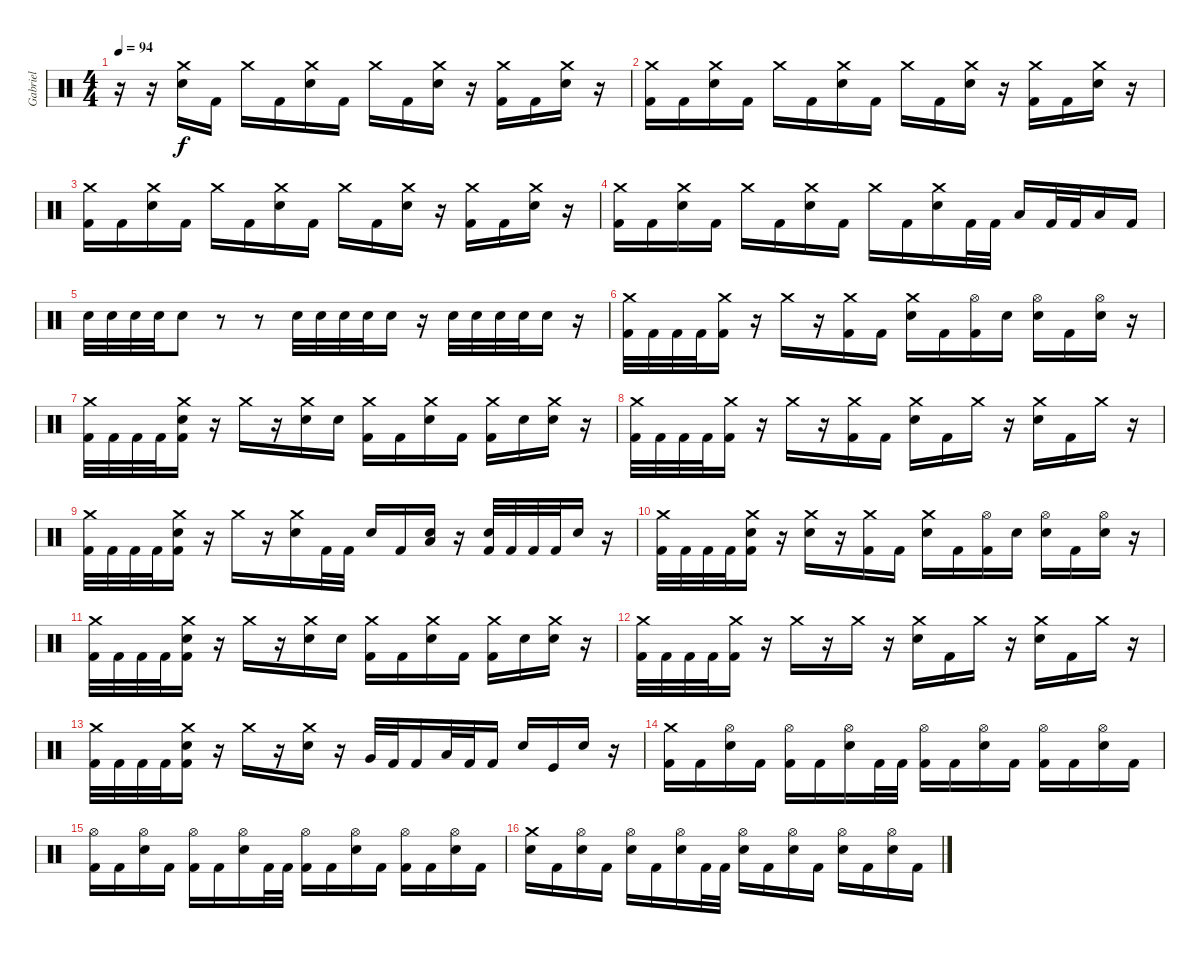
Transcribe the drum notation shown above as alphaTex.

\track ("Gabriel" "Gabriel") {instrument percussion}
\staff {score}
\articulation defaults
\ts (4 4)
\tempo 94
\clef neutral
\ks c
r.16{dy f} r.16 ("Crash medium (hit)" "Electric Snare (hit)").16 "Kick (hit) 2".16 "Crash medium (hit)".16 "Kick (hit) 2".16 ("Crash medium (hit)" "Electric Snare (hit)").16 "Kick (hit) 2".16 "Crash medium (hit)".16 "Kick (hit) 2".16 ("Crash medium (hit)" "Electric Snare (hit)").16 r.16 ("Crash medium (hit)" "Kick (hit) 2").16 "Kick (hit) 2".16 ("Crash medium (hit)" "Electric Snare (hit)").16 r.16 |
("Crash medium (hit)" "Kick (hit) 2").16 "Kick (hit) 2".16 ("Crash medium (hit)" "Electric Snare (hit)").16 "Kick (hit) 2".16 "Crash medium (hit)".16 "Kick (hit) 2".16 ("Crash medium (hit)" "Electric Snare (hit)").16 "Kick (hit) 2".16 "Crash medium (hit)".16 "Kick (hit) 2".16 ("Crash medium (hit)" "Electric Snare (hit)").16 r.16 ("Crash medium (hit)" "Kick (hit) 2").16 "Kick (hit) 2".16 ("Crash medium (hit)" "Electric Snare (hit)").16 r.16 |
("Crash medium (hit)" "Kick (hit) 2").16 "Kick (hit) 2".16 ("Crash medium (hit)" "Electric Snare (hit)").16 "Kick (hit) 2".16 "Crash medium (hit)".16 "Kick (hit) 2".16 ("Crash medium (hit)" "Electric Snare (hit)").16 "Kick (hit) 2".16 "Crash medium (hit)".16 "Kick (hit) 2".16 ("Crash medium (hit)" "Electric Snare (hit)").16 r.16 ("Crash medium (hit)" "Kick (hit) 2").16 "Kick (hit) 2".16 ("Crash medium (hit)" "Electric Snare (hit)").16 r.16 |
("Crash medium (hit)" "Kick (hit) 2").16 "Kick (hit) 2".16 ("Crash medium (hit)" "Electric Snare (hit)").16 "Kick (hit) 2".16 "Crash medium (hit)".16 "Kick (hit) 2".16 ("Crash medium (hit)" "Electric Snare (hit)").16 "Kick (hit) 2".16 "Crash medium (hit)".16 "Kick (hit) 2".16 ("Crash medium (hit)" "Electric Snare (hit)").16 "Kick (hit) 2".32 "Kick (hit) 2".32 "Low Tom (hit)".16 "Kick (hit) 2".32 "Kick (hit) 2".32 "Low Tom (hit)".16 "Kick (hit) 2".16 |
"Electric Snare (hit)".32 "Electric Snare (hit)".32 "Electric Snare (hit)".32 "Electric Snare (hit)".32 "Electric Snare (hit)".8 r.8 r.8 "Electric Snare (hit)".32 "Electric Snare (hit)".32 "Electric Snare (hit)".32 "Electric Snare (hit)".32 "Electric Snare (hit)".16 r.16 "Electric Snare (hit)".32 "Electric Snare (hit)".32 "Electric Snare (hit)".32 "Electric Snare (hit)".32 "Electric Snare (hit)".16 r.16 |
("Crash medium (hit)" "Kick (hit) 2").32 "Kick (hit) 2".32 "Kick (hit) 2".32 "Kick (hit) 2".32 ("Crash medium (hit)" "Kick (hit) 2").16 r.16 "Crash medium (hit)".16 r.16 ("Crash medium (hit)" "Kick (hit) 2").16 "Kick (hit) 2".16 ("Crash medium (hit)" "Electric Snare (hit)").16 "Kick (hit) 2".16 ("Hi-Hat (open)" "Kick (hit) 2").16 "Electric Snare (hit)".16 ("Hi-Hat (open)" "Electric Snare (hit)").16 "Kick (hit) 2".16 ("Hi-Hat (open)" "Electric Snare (hit)").16 r.16 |
("Crash medium (hit)" "Kick (hit) 2").32 "Kick (hit) 2".32 "Kick (hit) 2".32 "Kick (hit) 2".32 ("Crash medium (hit)" "Electric Snare (hit)" "Kick (hit) 2").16 r.16 "Crash medium (hit)".16 r.16 ("Crash medium (hit)" "Electric Snare (hit)").16 "Electric Snare (hit)".16 ("Crash medium (hit)" "Kick (hit) 2").16 "Kick (hit) 2".16 ("Crash medium (hit)" "Electric Snare (hit)").16 "Kick (hit) 2".16 ("Crash medium (hit)" "Kick (hit) 2").16 "Electric Snare (hit)".16 ("Crash medium (hit)" "Electric Snare (hit)").16 r.16 |
("Crash medium (hit)" "Kick (hit) 2").32 "Kick (hit) 2".32 "Kick (hit) 2".32 "Kick (hit) 2".32 ("Crash medium (hit)" "Kick (hit) 2").16 r.16 "Crash medium (hit)".16 r.16 ("Crash medium (hit)" "Kick (hit) 2").16 "Kick (hit) 2".16 ("Crash medium (hit)" "Electric Snare (hit)").16 "Kick (hit) 2".16 "Crash medium (hit)".16 r.16 ("Crash medium (hit)" "Electric Snare (hit)").16 "Kick (hit) 2".16 "Crash medium (hit)".16 r.16 |
("Crash medium (hit)" "Kick (hit) 2").32 "Kick (hit) 2".32 "Kick (hit) 2".32 "Kick (hit) 2".32 ("Crash medium (hit)" "Electric Snare (hit)" "Kick (hit) 2").16 r.16 "Crash medium (hit)".16 r.16 ("Crash medium (hit)" "Electric Snare (hit)").16 "Kick (hit) 2".32 "Kick (hit) 2".32 "Electric Snare (hit)".16 "Kick (hit) 2".16 ("Electric Snare (hit)" "Low Tom (hit)").16 r.16 ("Electric Snare (hit)" "Kick (hit) 2").32 "Kick (hit) 2".32 "Kick (hit) 2".32 "Kick (hit) 2".32 "Electric Snare (hit)".16 r.16 |
("Crash medium (hit)" "Kick (hit) 2").32 "Kick (hit) 2".32 "Kick (hit) 2".32 "Kick (hit) 2".32 ("Crash medium (hit)" "Electric Snare (hit)" "Kick (hit) 2").16 r.16 ("Crash medium (hit)" "Electric Snare (hit)").16 r.16 ("Crash medium (hit)" "Kick (hit) 2").16 "Kick (hit) 2".16 ("Crash medium (hit)" "Electric Snare (hit)").16 "Kick (hit) 2".16 ("Hi-Hat (open)" "Kick (hit) 2").16 "Electric Snare (hit)".16 ("Hi-Hat (open)" "Electric Snare (hit)").16 "Kick (hit) 2".16 ("Hi-Hat (open)" "Electric Snare (hit)").16 r.16 |
("Crash medium (hit)" "Kick (hit) 2").32 "Kick (hit) 2".32 "Kick (hit) 2".32 "Kick (hit) 2".32 ("Crash medium (hit)" "Electric Snare (hit)" "Kick (hit) 2").16 r.16 "Crash medium (hit)".16 r.16 ("Crash medium (hit)" "Electric Snare (hit)").16 "Electric Snare (hit)".16 ("Crash medium (hit)" "Kick (hit) 2").16 "Kick (hit) 2".16 ("Crash medium (hit)" "Electric Snare (hit)").16 "Kick (hit) 2".16 ("Crash medium (hit)" "Kick (hit) 2").16 "Electric Snare (hit)".16 ("Crash medium (hit)" "Electric Snare (hit)").16 r.16 |
("Crash medium (hit)" "Kick (hit) 2").32 "Kick (hit) 2".32 "Kick (hit) 2".32 "Kick (hit) 2".32 ("Crash medium (hit)" "Kick (hit) 2").16 r.16 "Crash medium (hit)".16 r.16 "Crash medium (hit)".16 r.16 ("Crash medium (hit)" "Electric Snare (hit)").16 "Kick (hit) 2".16 "Crash medium (hit)".16 r.16 ("Crash medium (hit)" "Electric Snare (hit)").16 "Kick (hit) 2".16 "Crash medium (hit)".16 r.16 |
("Crash medium (hit)" "Kick (hit) 2").32 "Kick (hit) 2".32 "Kick (hit) 2".32 "Kick (hit) 2".32 ("Crash medium (hit)" "Electric Snare (hit)" "Kick (hit) 2").16 r.16 "Crash medium (hit)".16 r.16 ("Crash medium (hit)" "Electric Snare (hit)").16 r.16 "Very Low Tom (hit)".32 "Kick (hit) 2".32 "Kick (hit) 2".16 "Low Tom (hit)".32 "Kick (hit) 2".32 "Kick (hit) 2".16 "Electric Snare (hit)".16 "Kick (hit)".16 "Electric Snare (hit)".16 r.16 |
("Crash medium (hit)" "Kick (hit) 2").16 "Kick (hit) 2".16 ("Hi-Hat (open)" "Electric Snare (hit)").16 "Kick (hit) 2".16 ("Hi-Hat (open)" "Kick (hit) 2").16 "Kick (hit) 2".16 ("Hi-Hat (open)" "Electric Snare (hit)").16 "Kick (hit) 2".32 "Kick (hit) 2".32 ("Hi-Hat (open)" "Kick (hit) 2").16 "Kick (hit) 2".16 ("Hi-Hat (open)" "Electric Snare (hit)").16 "Kick (hit) 2".16 ("Hi-Hat (open)" "Kick (hit) 2").16 "Kick (hit) 2".16 ("Hi-Hat (open)" "Electric Snare (hit)").16 "Kick (hit) 2".16 |
("Hi-Hat (open)" "Kick (hit) 2").16 "Kick (hit) 2".16 ("Hi-Hat (open)" "Electric Snare (hit)").16 "Kick (hit) 2".16 ("Hi-Hat (open)" "Kick (hit) 2").16 "Kick (hit) 2".16 ("Hi-Hat (open)" "Electric Snare (hit)").16 "Kick (hit) 2".32 "Kick (hit) 2".32 ("Hi-Hat (open)" "Kick (hit) 2").16 "Kick (hit) 2".16 ("Hi-Hat (open)" "Electric Snare (hit)").16 "Kick (hit) 2".16 ("Hi-Hat (open)" "Kick (hit) 2").16 "Kick (hit) 2".16 ("Hi-Hat (open)" "Electric Snare (hit)").16 "Kick (hit) 2".16 |
("Crash medium (hit)" "Electric Snare (hit)").16 "Kick (hit) 2".16 ("Hi-Hat (open)" "Electric Snare (hit)").16 "Kick (hit) 2".16 ("Hi-Hat (open)" "Electric Snare (hit)").16 "Kick (hit) 2".16 ("Hi-Hat (open)" "Electric Snare (hit)").16 "Kick (hit) 2".32 "Kick (hit) 2".32 ("Hi-Hat (open)" "Electric Snare (hit)").16 "Kick (hit) 2".16 ("Hi-Hat (open)" "Electric Snare (hit)").16 "Kick (hit) 2".16 ("Hi-Hat (open)" "Electric Snare (hit)").16 "Kick (hit) 2".16 ("Hi-Hat (open)" "Electric Snare (hit)").16 "Kick (hit) 2".16
